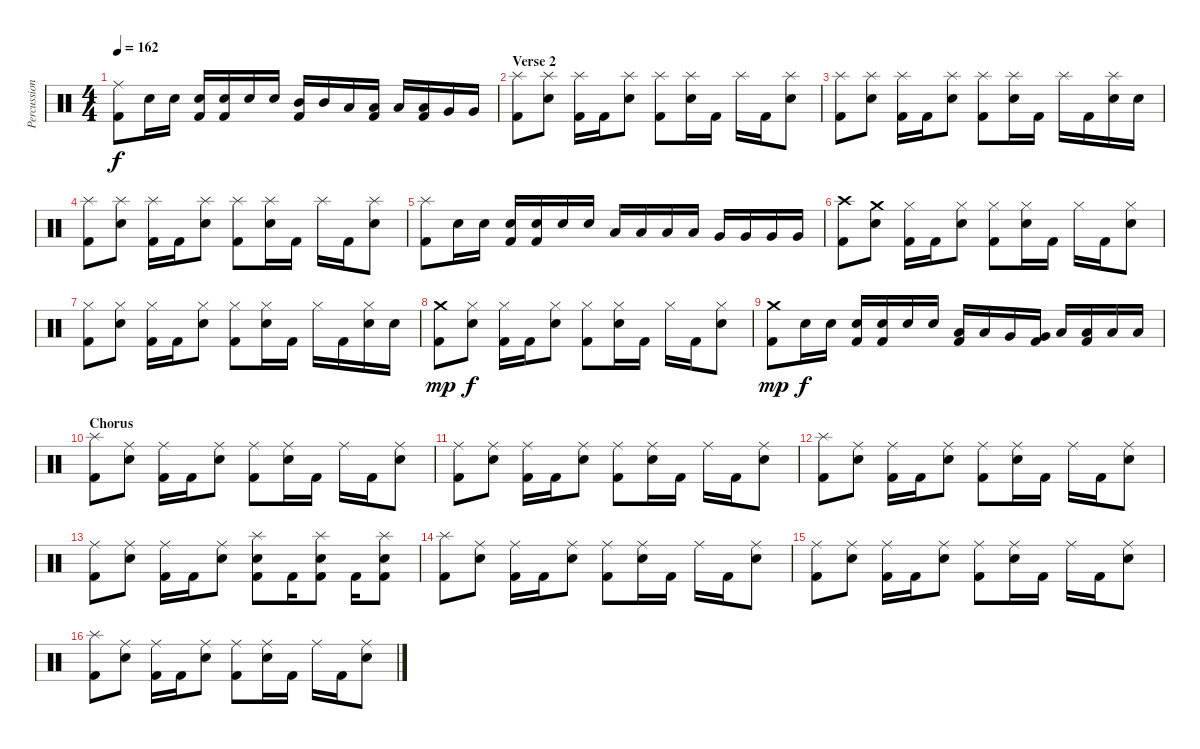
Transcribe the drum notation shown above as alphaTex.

\track ("Percussion" "Percussion") {instrument percussion}
\staff {score}
\articulation defaults
\ts (4 4)
\tempo 162
\clef neutral
\ks c
("Ride (middle)" "Kick (hit) 2").8{dy f} "Electric Snare (hit)".16 "Electric Snare (hit)".16 ("Electric Snare (hit)" "Kick (hit) 2").16 ("Electric Snare (hit)" "Kick (hit) 2").16 "Electric Snare (hit)".16 "Electric Snare (hit)".16 ("Mid Tom (hit)" "Kick (hit) 2").16 "Mid Tom (hit)".16 "Low Tom (hit)".16 ("Low Tom (hit)" "Kick (hit) 2").16 "Low Tom (hit)".16 ("Low Tom (hit)" "Kick (hit) 2").16 "Very Low Tom (hit)".16 "Very Low Tom (hit)".16 |
\section ("" "Verse 2")
("Splash (hit)" "Kick (hit) 2").8 ("Splash (hit)" "Electric Snare (hit)").8 ("Splash (hit)" "Kick (hit) 2").16 "Kick (hit) 2".16 ("Splash (hit)" "Electric Snare (hit)").8 ("Splash (hit)" "Kick (hit) 2").8 ("Splash (hit)" "Electric Snare (hit)").16 "Kick (hit) 2".16 "Splash (hit)".16 "Kick (hit) 2".16 ("Splash (hit)" "Electric Snare (hit)").8 |
("Splash (hit)" "Kick (hit) 2").8 ("Splash (hit)" "Electric Snare (hit)").8 ("Splash (hit)" "Kick (hit) 2").16 "Kick (hit) 2".16 ("Splash (hit)" "Electric Snare (hit)").8 ("Splash (hit)" "Kick (hit) 2").8 ("Splash (hit)" "Electric Snare (hit)").16 "Kick (hit) 2".16 "Splash (hit)".16 "Kick (hit) 2".16 ("Splash (hit)" "Electric Snare (hit)").16 "Electric Snare (hit)".16 |
("Splash (hit)" "Kick (hit) 2").8 ("Splash (hit)" "Electric Snare (hit)").8 ("Splash (hit)" "Kick (hit) 2").16 "Kick (hit) 2".16 ("Splash (hit)" "Electric Snare (hit)").8 ("Splash (hit)" "Kick (hit) 2").8 ("Splash (hit)" "Electric Snare (hit)").16 "Kick (hit) 2".16 "Splash (hit)".16 "Kick (hit) 2".16 ("Splash (hit)" "Electric Snare (hit)").8 |
("Splash (hit)" "Kick (hit) 2").8 "Electric Snare (hit)".16 "Electric Snare (hit)".16 ("Electric Snare (hit)" "Kick (hit) 2").16 ("Electric Snare (hit)" "Kick (hit) 2").16 "Electric Snare (hit)".16 "Electric Snare (hit)".16 "Low Tom (hit)".16 "Low Tom (hit)".16 "Low Tom (hit)".16 "Low Tom (hit)".16 "Very Low Tom (hit)".16 "Very Low Tom (hit)".16 "Very Low Tom (hit)".16 "Very Low Tom (hit)".16 |
("Crash high (hit)" "Kick (hit) 2").8 ("Crash medium (hit)" "Electric Snare (hit)").8 ("Hi-Hat (closed)" "Kick (hit) 2").16 "Kick (hit) 2".16 ("Hi-Hat (closed)" "Electric Snare (hit)").8 ("Hi-Hat (closed)" "Kick (hit) 2").8 ("Hi-Hat (closed)" "Electric Snare (hit)").16 "Kick (hit) 2".16 "Hi-Hat (closed)".16 "Kick (hit) 2".16 ("Hi-Hat (closed)" "Electric Snare (hit)").8 |
("Hi-Hat (closed)" "Kick (hit) 2").8 ("Hi-Hat (closed)" "Electric Snare (hit)").8 ("Hi-Hat (closed)" "Kick (hit) 2").16 "Kick (hit) 2".16 ("Hi-Hat (closed)" "Electric Snare (hit)").8 ("Hi-Hat (closed)" "Kick (hit) 2").8 ("Hi-Hat (closed)" "Electric Snare (hit)").16 "Kick (hit) 2".16 "Hi-Hat (closed)".16 "Kick (hit) 2".16 ("Hi-Hat (closed)" "Electric Snare (hit)").16 "Electric Snare (hit)".16 |
("Crash medium (hit)" "Kick (hit) 2").8{dy mp} ("Hi-Hat (closed)" "Electric Snare (hit)").8{dy f} ("Hi-Hat (closed)" "Kick (hit) 2").16 "Kick (hit) 2".16 ("Hi-Hat (closed)" "Electric Snare (hit)").8 ("Hi-Hat (closed)" "Kick (hit) 2").8 ("Hi-Hat (closed)" "Electric Snare (hit)").16 "Kick (hit) 2".16 "Hi-Hat (closed)".16 "Kick (hit) 2".16 ("Hi-Hat (closed)" "Electric Snare (hit)").8 |
("Crash medium (hit)" "Kick (hit) 2").8{dy mp} "Electric Snare (hit)".16{dy f} "Electric Snare (hit)".16 ("Electric Snare (hit)" "Kick (hit) 2").16 ("Electric Snare (hit)" "Kick (hit) 2").16 "Electric Snare (hit)".16 "Electric Snare (hit)".16 ("Low Tom (hit)" "Kick (hit) 2").16 "Low Tom (hit)".16 "Very Low Tom (hit)".16 ("Very Low Tom (hit)" "Kick (hit) 2").16 "Low Tom (hit)".16 ("Low Tom (hit)" "Kick (hit) 2").16 "Low Tom (hit)".16 "Low Tom (hit)".16 |
\section ("" "Chorus")
("Splash (hit)" "Kick (hit) 2").8 ("Ride (middle)" "Electric Snare (hit)").8 ("Ride (middle)" "Kick (hit) 2").16 "Kick (hit) 2".16 ("Ride (middle)" "Electric Snare (hit)").8 ("Ride (middle)" "Kick (hit) 2").8 ("Ride (middle)" "Electric Snare (hit)").16 "Kick (hit) 2".16 "Ride (middle)".16 "Kick (hit) 2".16 ("Ride (middle)" "Electric Snare (hit)").8 |
("Ride (middle)" "Kick (hit) 2").8 ("Ride (middle)" "Electric Snare (hit)").8 ("Ride (middle)" "Kick (hit) 2").16 "Kick (hit) 2".16 ("Ride (middle)" "Electric Snare (hit)").8 ("Ride (middle)" "Kick (hit) 2").8 ("Ride (middle)" "Electric Snare (hit)").16 "Kick (hit) 2".16 "Ride (middle)".16 "Kick (hit) 2".16 ("Ride (middle)" "Electric Snare (hit)").8 |
("Splash (hit)" "Kick (hit) 2").8 ("Ride (middle)" "Electric Snare (hit)").8 ("Ride (middle)" "Kick (hit) 2").16 "Kick (hit) 2".16 ("Ride (middle)" "Electric Snare (hit)").8 ("Ride (middle)" "Kick (hit) 2").8 ("Ride (middle)" "Electric Snare (hit)").16 "Kick (hit) 2".16 "Ride (middle)".16 "Kick (hit) 2".16 ("Ride (middle)" "Electric Snare (hit)").8 |
("Ride (middle)" "Kick (hit) 2").8 ("Ride (middle)" "Electric Snare (hit)").8 ("Ride (middle)" "Kick (hit) 2").16 "Kick (hit) 2".16 ("Ride (middle)" "Electric Snare (hit)").8 ("Splash (hit)" "Electric Snare (hit)" "Kick (hit) 2").8 "Kick (hit) 2".16 ("Splash (hit)" "Electric Snare (hit)" "Kick (hit) 2").8 "Kick (hit) 2".16 ("Splash (hit)" "Electric Snare (hit)" "Kick (hit) 2").8 |
("Splash (hit)" "Kick (hit) 2").8 ("Ride (middle)" "Electric Snare (hit)").8 ("Ride (middle)" "Kick (hit) 2").16 "Kick (hit) 2".16 ("Ride (middle)" "Electric Snare (hit)").8 ("Ride (middle)" "Kick (hit) 2").8 ("Ride (middle)" "Electric Snare (hit)").16 "Kick (hit) 2".16 "Ride (middle)".16 "Kick (hit) 2".16 ("Ride (middle)" "Electric Snare (hit)").8 |
("Ride (middle)" "Kick (hit) 2").8 ("Ride (middle)" "Electric Snare (hit)").8 ("Ride (middle)" "Kick (hit) 2").16 "Kick (hit) 2".16 ("Ride (middle)" "Electric Snare (hit)").8 ("Ride (middle)" "Kick (hit) 2").8 ("Ride (middle)" "Electric Snare (hit)").16 "Kick (hit) 2".16 "Ride (middle)".16 "Kick (hit) 2".16 ("Ride (middle)" "Electric Snare (hit)").8 |
("Splash (hit)" "Kick (hit) 2").8 ("Ride (middle)" "Electric Snare (hit)").8 ("Ride (middle)" "Kick (hit) 2").16 "Kick (hit) 2".16 ("Ride (middle)" "Electric Snare (hit)").8 ("Ride (middle)" "Kick (hit) 2").8 ("Ride (middle)" "Electric Snare (hit)").16 "Kick (hit) 2".16 "Ride (middle)".16 "Kick (hit) 2".16 ("Ride (middle)" "Electric Snare (hit)").8
